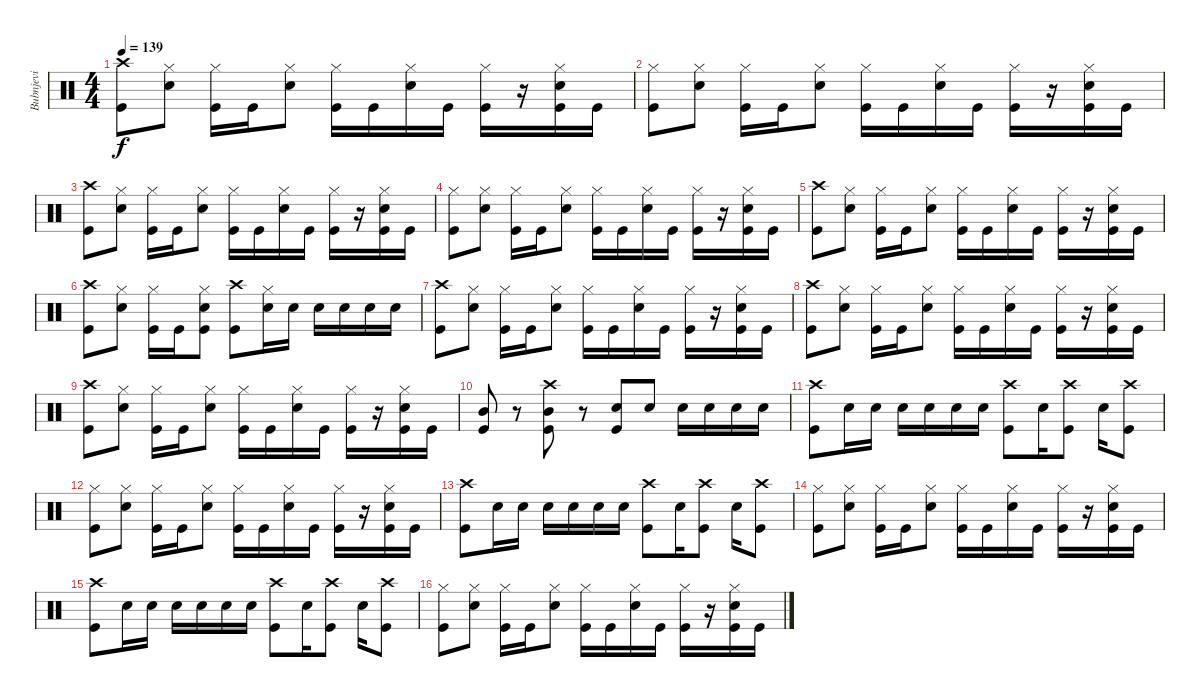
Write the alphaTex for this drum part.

\track ("Bubnjevi" "Bubnjevi") {instrument percussion}
\staff {score}
\articulation defaults
\ts (4 4)
\tempo 139
\clef neutral
\ks c
("Crash high (hit)" "Kick (hit)").8{dy f} ("Hi-Hat (closed)" "Snare (hit) 2").8 ("Hi-Hat (closed)" "Kick (hit)").16 "Kick (hit)".16 ("Hi-Hat (closed)" "Snare (hit) 2").8 ("Hi-Hat (closed)" "Kick (hit)").16 "Kick (hit)".16 ("Hi-Hat (closed)" "Snare (hit) 2").16 "Kick (hit)".16 ("Hi-Hat (closed)" "Kick (hit)").16 r.16 ("Hi-Hat (closed)" "Snare (hit) 2" "Kick (hit)").16 "Kick (hit)".16 |
("Hi-Hat (closed)" "Kick (hit)").8 ("Hi-Hat (closed)" "Snare (hit) 2").8 ("Hi-Hat (closed)" "Kick (hit)").16 "Kick (hit)".16 ("Hi-Hat (closed)" "Snare (hit) 2").8 ("Hi-Hat (closed)" "Kick (hit)").16 "Kick (hit)".16 ("Hi-Hat (closed)" "Snare (hit) 2").16 "Kick (hit)".16 ("Hi-Hat (closed)" "Kick (hit)").16 r.16 ("Hi-Hat (closed)" "Snare (hit) 2" "Kick (hit)").16 "Kick (hit)".16 |
("Crash high (hit)" "Kick (hit)").8 ("Hi-Hat (closed)" "Snare (hit) 2").8 ("Hi-Hat (closed)" "Kick (hit)").16 "Kick (hit)".16 ("Hi-Hat (closed)" "Snare (hit) 2").8 ("Hi-Hat (closed)" "Kick (hit)").16 "Kick (hit)".16 ("Hi-Hat (closed)" "Snare (hit) 2").16 "Kick (hit)".16 ("Hi-Hat (closed)" "Kick (hit)").16 r.16 ("Hi-Hat (closed)" "Snare (hit) 2" "Kick (hit)").16 "Kick (hit)".16 |
("Hi-Hat (closed)" "Kick (hit)").8 ("Hi-Hat (closed)" "Snare (hit) 2").8 ("Hi-Hat (closed)" "Kick (hit)").16 "Kick (hit)".16 ("Hi-Hat (closed)" "Snare (hit) 2").8 ("Hi-Hat (closed)" "Kick (hit)").16 "Kick (hit)".16 ("Hi-Hat (closed)" "Snare (hit) 2").16 "Kick (hit)".16 ("Hi-Hat (closed)" "Kick (hit)").16 r.16 ("Hi-Hat (closed)" "Snare (hit) 2" "Kick (hit)").16 "Kick (hit)".16 |
("Crash high (hit)" "Kick (hit)").8 ("Hi-Hat (closed)" "Snare (hit) 2").8 ("Hi-Hat (closed)" "Kick (hit)").16 "Kick (hit)".16 ("Hi-Hat (closed)" "Snare (hit) 2").8 ("Hi-Hat (closed)" "Kick (hit)").16 "Kick (hit)".16 ("Hi-Hat (closed)" "Snare (hit) 2").16 "Kick (hit)".16 ("Hi-Hat (closed)" "Kick (hit)").16 r.16 ("Hi-Hat (closed)" "Snare (hit) 2" "Kick (hit)").16 "Kick (hit)".16 |
("Crash high (hit)" "Kick (hit)").8 ("Hi-Hat (closed)" "Snare (hit) 2").8 ("Hi-Hat (closed)" "Kick (hit)").16 "Kick (hit)".16 ("Hi-Hat (closed)" "Snare (hit) 2" "Kick (hit)").8 ("Crash high (hit)" "Kick (hit)").8 ("Hi-Hat (closed)" "Snare (hit) 2").16 "Snare (hit) 2".16 "Snare (hit) 2".16 "Snare (hit) 2".16 "Snare (hit) 2".16 "Snare (hit) 2".16 |
("Crash high (hit)" "Kick (hit)").8 ("Hi-Hat (closed)" "Snare (hit) 2").8 ("Hi-Hat (closed)" "Kick (hit)").16 "Kick (hit)".16 ("Hi-Hat (closed)" "Snare (hit) 2").8 ("Hi-Hat (closed)" "Kick (hit)").16 "Kick (hit)".16 ("Hi-Hat (closed)" "Snare (hit) 2").16 "Kick (hit)".16 ("Hi-Hat (closed)" "Kick (hit)").16 r.16 ("Hi-Hat (closed)" "Snare (hit) 2" "Kick (hit)").16 "Kick (hit)".16 |
("Crash high (hit)" "Kick (hit)").8 ("Hi-Hat (closed)" "Snare (hit) 2").8 ("Hi-Hat (closed)" "Kick (hit)").16 "Kick (hit)".16 ("Hi-Hat (closed)" "Snare (hit) 2").8 ("Hi-Hat (closed)" "Kick (hit)").16 "Kick (hit)".16 ("Hi-Hat (closed)" "Snare (hit) 2").16 "Kick (hit)".16 ("Hi-Hat (closed)" "Kick (hit)").16 r.16 ("Hi-Hat (closed)" "Snare (hit) 2" "Kick (hit)").16 "Kick (hit)".16 |
("Crash high (hit)" "Kick (hit)").8 ("Hi-Hat (closed)" "Snare (hit) 2").8 ("Hi-Hat (closed)" "Kick (hit)").16 "Kick (hit)".16 ("Hi-Hat (closed)" "Snare (hit) 2").8 ("Hi-Hat (closed)" "Kick (hit)").16 "Kick (hit)".16 ("Hi-Hat (closed)" "Snare (hit) 2").16 "Kick (hit)".16 ("Hi-Hat (closed)" "Kick (hit)").16 r.16 ("Hi-Hat (closed)" "Snare (hit) 2" "Kick (hit)").16 "Kick (hit)".16 |
("Mid Tom (hit)" "Kick (hit)").8 r.8 ("Crash high (hit)" "Mid Tom (hit)" "Kick (hit)").8 r.8 ("Snare (hit) 2" "Kick (hit)").8 "Snare (hit) 2".8 "Snare (hit) 2".16 "Snare (hit) 2".16 "Snare (hit) 2".16 "Snare (hit) 2".16 |
("Crash high (hit)" "Kick (hit)").8 "Snare (hit) 2".16 "Snare (hit) 2".16 "Snare (hit) 2".16 "Snare (hit) 2".16 "Snare (hit) 2".16 "Snare (hit) 2".16 ("Crash high (hit)" "Kick (hit)").8 "Snare (hit) 2".16 ("Crash high (hit)" "Kick (hit)").8 "Snare (hit) 2".16 ("Crash high (hit)" "Kick (hit)").8 |
("Hi-Hat (closed)" "Kick (hit)").8 ("Hi-Hat (closed)" "Snare (hit) 2").8 ("Hi-Hat (closed)" "Kick (hit)").16 "Kick (hit)".16 ("Hi-Hat (closed)" "Snare (hit) 2").8 ("Hi-Hat (closed)" "Kick (hit)").16 "Kick (hit)".16 ("Hi-Hat (closed)" "Snare (hit) 2").16 "Kick (hit)".16 ("Hi-Hat (closed)" "Kick (hit)").16 r.16 ("Hi-Hat (closed)" "Snare (hit) 2" "Kick (hit)").16 "Kick (hit)".16 |
("Crash high (hit)" "Kick (hit)").8 "Snare (hit) 2".16 "Snare (hit) 2".16 "Snare (hit) 2".16 "Snare (hit) 2".16 "Snare (hit) 2".16 "Snare (hit) 2".16 ("Crash high (hit)" "Kick (hit)").8 "Snare (hit) 2".16 ("Crash high (hit)" "Kick (hit)").8 "Snare (hit) 2".16 ("Crash high (hit)" "Kick (hit)").8 |
("Hi-Hat (closed)" "Kick (hit)").8 ("Hi-Hat (closed)" "Snare (hit) 2").8 ("Hi-Hat (closed)" "Kick (hit)").16 "Kick (hit)".16 ("Hi-Hat (closed)" "Snare (hit) 2").8 ("Hi-Hat (closed)" "Kick (hit)").16 "Kick (hit)".16 ("Hi-Hat (closed)" "Snare (hit) 2").16 "Kick (hit)".16 ("Hi-Hat (closed)" "Kick (hit)").16 r.16 ("Hi-Hat (closed)" "Snare (hit) 2" "Kick (hit)").16 "Kick (hit)".16 |
("Crash high (hit)" "Kick (hit)").8 "Snare (hit) 2".16 "Snare (hit) 2".16 "Snare (hit) 2".16 "Snare (hit) 2".16 "Snare (hit) 2".16 "Snare (hit) 2".16 ("Crash high (hit)" "Kick (hit)").8 "Snare (hit) 2".16 ("Crash high (hit)" "Kick (hit)").8 "Snare (hit) 2".16 ("Crash high (hit)" "Kick (hit)").8 |
("Hi-Hat (closed)" "Kick (hit)").8 ("Hi-Hat (closed)" "Snare (hit) 2").8 ("Hi-Hat (closed)" "Kick (hit)").16 "Kick (hit)".16 ("Hi-Hat (closed)" "Snare (hit) 2").8 ("Hi-Hat (closed)" "Kick (hit)").16 "Kick (hit)".16 ("Hi-Hat (closed)" "Snare (hit) 2").16 "Kick (hit)".16 ("Hi-Hat (closed)" "Kick (hit)").16 r.16 ("Hi-Hat (closed)" "Snare (hit) 2" "Kick (hit)").16 "Kick (hit)".16
